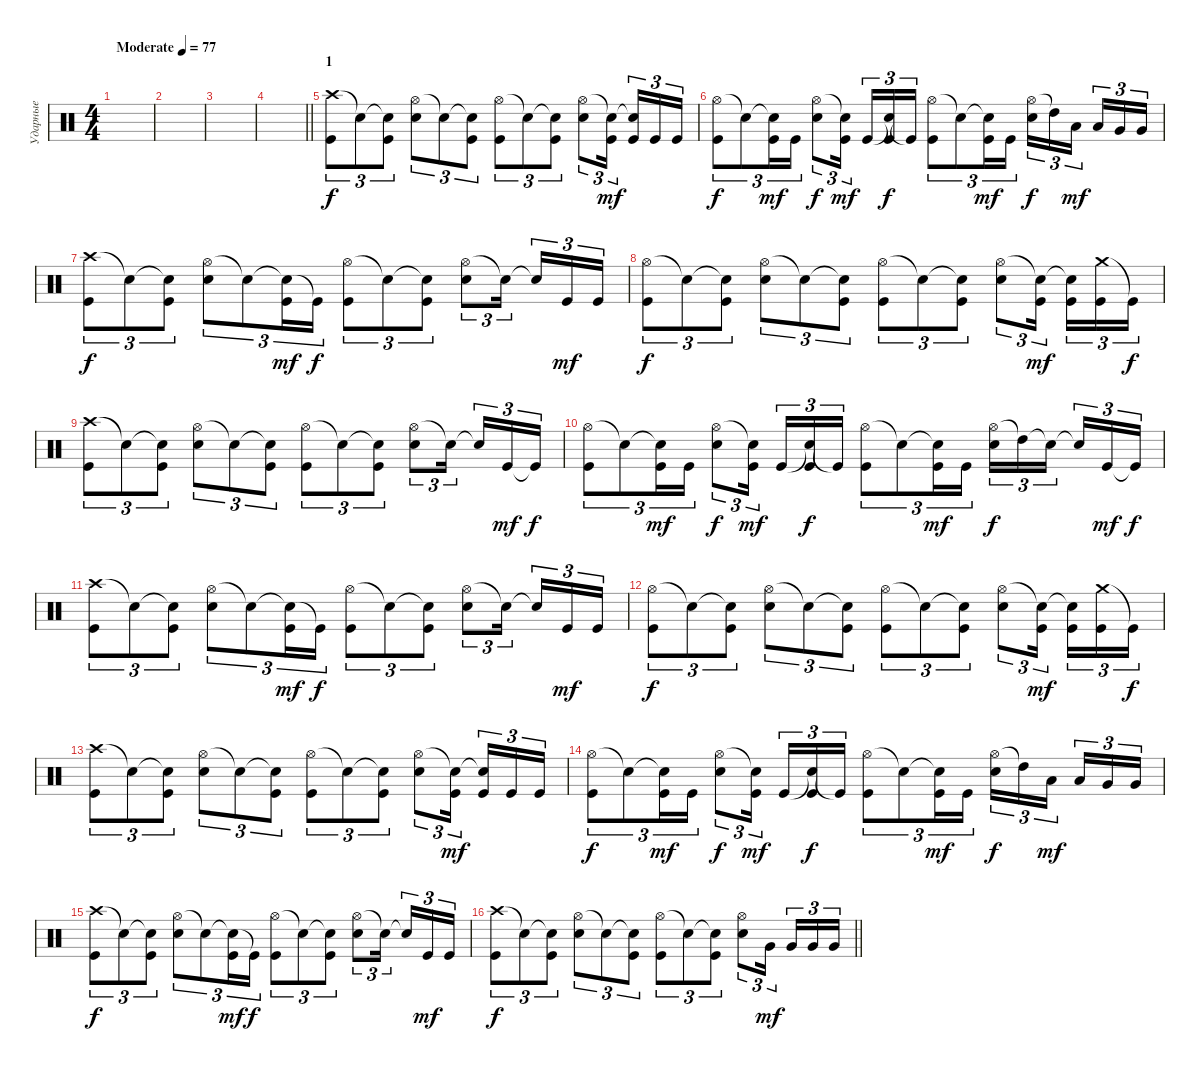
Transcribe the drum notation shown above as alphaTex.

\track ("Ударные" "Ударные") {instrument percussion}
\staff {score}
\articulation defaults
\ts (4 4)
\tempo (77 "Moderate")
\clef neutral
\ks c
|
|
|
\barLineRight lightlight
|
\section ("" "1")
("Crash high (hit)" "Kick (hit)").8{tu (3 2)} "Snare (hit)"{t}.8{tu (3 2)} ("Snare (hit)"{t} "Kick (hit)").8{tu (3 2)} ("Hi-Hat (open)" "Snare (hit) 2").8{tu (3 2)} "Snare (hit)"{t}.8{tu (3 2)} ("Snare (hit)"{t} "Kick (hit)").8{tu (3 2)} ("Hi-Hat (open)" "Kick (hit)").8{tu (3 2)} "Snare (hit)"{t}.8{tu (3 2)} ("Snare (hit)"{t} "Kick (hit)").8{tu (3 2)} ("Hi-Hat (open)" "Snare (hit) 2").8{tu (3 2)} ("Snare (hit)"{t} "Kick (hit)").16{tu (3 2) dy mf beam splitsecondary} ("Snare (hit)"{t} "Kick (hit)").16{tu (3 2)} "Kick (hit)".16{tu (3 2)} "Kick (hit)".16{tu (3 2)} |
("Hi-Hat (open)" "Kick (hit)").8{tu (3 2) dy f} "Snare (hit)"{t}.8{tu (3 2)} ("Snare (hit)"{t} "Kick (hit)").16{tu (3 2) dy mf} "Kick (hit)".16{tu (3 2)} ("Hi-Hat (open)" "Snare (hit) 2").8{tu (3 2) dy f} ("Snare (hit)"{t} "Kick (hit)").16{tu (3 2) dy mf beam splitsecondary} "Kick (hit)".16{tu (3 2)} ("Snare (hit)"{t} "Kick (hit)").16{tu (3 2) dy f} "Kick (hit)"{t}.16{tu (3 2)} ("Hi-Hat (open)" "Kick (hit)").8{tu (3 2)} "Snare (hit)"{t}.8{tu (3 2)} ("Snare (hit)"{t} "Kick (hit)").16{tu (3 2) dy mf} "Kick (hit)".16{tu (3 2)} ("Hi-Hat (open)" "Snare (hit) 2").16{tu (3 2) dy f} "High Tom (hit)"{t}.16{tu (3 2)} "Low Tom (hit)".16{tu (3 2) dy mf beam splitsecondary} "Low Tom (hit)".16{tu (3 2)} "Very Low Tom (hit)".16{tu (3 2)} "Very Low Tom (hit)".16{tu (3 2)} |
("Crash high (hit)" "Kick (hit)").8{tu (3 2) dy f} "Snare (hit)"{t}.8{tu (3 2)} ("Snare (hit)"{t} "Kick (hit)").8{tu (3 2)} ("Hi-Hat (open)" "Snare (hit) 2").8{tu (3 2)} "Snare (hit)"{t}.8{tu (3 2)} ("Snare (hit)"{t} "Kick (hit)").16{tu (3 2) dy mf} "Kick (hit)"{t}.16{tu (3 2) dy f} ("Hi-Hat (open)" "Kick (hit)").8{tu (3 2)} "Snare (hit)"{t}.8{tu (3 2)} ("Snare (hit)"{t} "Kick (hit)").8{tu (3 2)} ("Hi-Hat (open)" "Snare (hit) 2").8{tu (3 2)} "Snare (hit)"{t}.16{tu (3 2) beam splitsecondary} "Snare (hit)"{t}.16{tu (3 2)} "Kick (hit)".16{tu (3 2) dy mf} "Kick (hit)".16{tu (3 2)} |
("Hi-Hat (open)" "Kick (hit)").8{tu (3 2) dy f} "Snare (hit)"{t}.8{tu (3 2)} ("Snare (hit)"{t} "Kick (hit)").8{tu (3 2)} ("Hi-Hat (open)" "Snare (hit) 2").8{tu (3 2)} "Snare (hit)"{t}.8{tu (3 2)} ("Snare (hit)"{t} "Kick (hit)").8{tu (3 2)} ("Hi-Hat (open)" "Kick (hit)").8{tu (3 2)} "Snare (hit)"{t}.8{tu (3 2)} ("Snare (hit)"{t} "Kick (hit)").8{tu (3 2)} ("Hi-Hat (open)" "Snare (hit) 2").8{tu (3 2)} ("Snare (hit)"{t} "Kick (hit)").16{tu (3 2) dy mf beam splitsecondary} ("Snare (hit)"{t} "Kick (hit)").16{tu (3 2)} ("Crash medium (hit)" "Kick (hit)").16{tu (3 2)} "Kick (hit)"{t}.16{tu (3 2) dy f} |
("Crash high (hit)" "Kick (hit)").8{tu (3 2)} "Snare (hit)"{t}.8{tu (3 2)} ("Snare (hit)"{t} "Kick (hit)").8{tu (3 2)} ("Hi-Hat (open)" "Snare (hit) 2").8{tu (3 2)} "Snare (hit)"{t}.8{tu (3 2)} ("Snare (hit)"{t} "Kick (hit)").8{tu (3 2)} ("Hi-Hat (open)" "Kick (hit)").8{tu (3 2)} "Snare (hit)"{t}.8{tu (3 2)} ("Snare (hit)"{t} "Kick (hit)").8{tu (3 2)} ("Hi-Hat (open)" "Snare (hit) 2").8{tu (3 2)} "Snare (hit)"{t}.16{tu (3 2) beam splitsecondary} "Snare (hit)"{t}.16{tu (3 2)} "Kick (hit)".16{tu (3 2) dy mf} "Kick (hit)"{t}.16{tu (3 2) dy f} |
("Hi-Hat (open)" "Kick (hit)").8{tu (3 2)} "Snare (hit)"{t}.8{tu (3 2)} ("Snare (hit)"{t} "Kick (hit)").16{tu (3 2) dy mf} "Kick (hit)".16{tu (3 2)} ("Hi-Hat (open)" "Snare (hit) 2").8{tu (3 2) dy f} ("Snare (hit)"{t} "Kick (hit)").16{tu (3 2) dy mf beam splitsecondary} "Kick (hit)".16{tu (3 2)} ("Snare (hit)"{t} "Kick (hit)").16{tu (3 2) dy f} "Kick (hit)"{t}.16{tu (3 2)} ("Hi-Hat (open)" "Kick (hit)").8{tu (3 2)} "Snare (hit)"{t}.8{tu (3 2)} ("Snare (hit)"{t} "Kick (hit)").16{tu (3 2) dy mf} "Kick (hit)".16{tu (3 2)} ("Hi-Hat (open)" "Snare (hit) 2").16{tu (3 2) dy f} "High Tom (hit)"{t}.16{tu (3 2)} "Snare (hit)"{t}.16{tu (3 2) beam splitsecondary} "Snare (hit)"{t}.16{tu (3 2)} "Kick (hit)".16{tu (3 2) dy mf} "Kick (hit)"{t}.16{tu (3 2) dy f} |
("Crash high (hit)" "Kick (hit)").8{tu (3 2)} "Snare (hit)"{t}.8{tu (3 2)} ("Snare (hit)"{t} "Kick (hit)").8{tu (3 2)} ("Hi-Hat (open)" "Snare (hit) 2").8{tu (3 2)} "Snare (hit)"{t}.8{tu (3 2)} ("Snare (hit)"{t} "Kick (hit)").16{tu (3 2) dy mf} "Kick (hit)"{t}.16{tu (3 2) dy f} ("Hi-Hat (open)" "Kick (hit)").8{tu (3 2)} "Snare (hit)"{t}.8{tu (3 2)} ("Snare (hit)"{t} "Kick (hit)").8{tu (3 2)} ("Hi-Hat (open)" "Snare (hit) 2").8{tu (3 2)} "Snare (hit)"{t}.16{tu (3 2) beam splitsecondary} "Snare (hit)"{t}.16{tu (3 2)} "Kick (hit)".16{tu (3 2) dy mf} "Kick (hit)".16{tu (3 2)} |
("Hi-Hat (open)" "Kick (hit)").8{tu (3 2) dy f} "Snare (hit)"{t}.8{tu (3 2)} ("Snare (hit)"{t} "Kick (hit)").8{tu (3 2)} ("Hi-Hat (open)" "Snare (hit) 2").8{tu (3 2)} "Snare (hit)"{t}.8{tu (3 2)} ("Snare (hit)"{t} "Kick (hit)").8{tu (3 2)} ("Hi-Hat (open)" "Kick (hit)").8{tu (3 2)} "Snare (hit)"{t}.8{tu (3 2)} ("Snare (hit)"{t} "Kick (hit)").8{tu (3 2)} ("Hi-Hat (open)" "Snare (hit) 2").8{tu (3 2)} ("Snare (hit)"{t} "Kick (hit)").16{tu (3 2) dy mf beam splitsecondary} ("Snare (hit)"{t} "Kick (hit)").16{tu (3 2)} ("Crash medium (hit)" "Kick (hit)").16{tu (3 2)} "Kick (hit)"{t}.16{tu (3 2) dy f} |
("Crash high (hit)" "Kick (hit)").8{tu (3 2)} "Snare (hit)"{t}.8{tu (3 2)} ("Snare (hit)"{t} "Kick (hit)").8{tu (3 2)} ("Hi-Hat (open)" "Snare (hit) 2").8{tu (3 2)} "Snare (hit)"{t}.8{tu (3 2)} ("Snare (hit)"{t} "Kick (hit)").8{tu (3 2)} ("Hi-Hat (open)" "Kick (hit)").8{tu (3 2)} "Snare (hit)"{t}.8{tu (3 2)} ("Snare (hit)"{t} "Kick (hit)").8{tu (3 2)} ("Hi-Hat (open)" "Snare (hit) 2").8{tu (3 2)} ("Snare (hit)"{t} "Kick (hit)").16{tu (3 2) dy mf beam splitsecondary} ("Snare (hit)"{t} "Kick (hit)").16{tu (3 2)} "Kick (hit)".16{tu (3 2)} "Kick (hit)".16{tu (3 2)} |
("Hi-Hat (open)" "Kick (hit)").8{tu (3 2) dy f} "Snare (hit)"{t}.8{tu (3 2)} ("Snare (hit)"{t} "Kick (hit)").16{tu (3 2) dy mf} "Kick (hit)".16{tu (3 2)} ("Hi-Hat (open)" "Snare (hit) 2").8{tu (3 2) dy f} ("Snare (hit)"{t} "Kick (hit)").16{tu (3 2) dy mf beam splitsecondary} "Kick (hit)".16{tu (3 2)} ("Snare (hit)"{t} "Kick (hit)").16{tu (3 2) dy f} "Kick (hit)"{t}.16{tu (3 2)} ("Hi-Hat (open)" "Kick (hit)").8{tu (3 2)} "Snare (hit)"{t}.8{tu (3 2)} ("Snare (hit)"{t} "Kick (hit)").16{tu (3 2) dy mf} "Kick (hit)".16{tu (3 2)} ("Hi-Hat (open)" "Snare (hit) 2").16{tu (3 2) dy f} "High Tom (hit)"{t}.16{tu (3 2)} "Low Tom (hit)".16{tu (3 2) dy mf beam splitsecondary} "Low Tom (hit)".16{tu (3 2)} "Very Low Tom (hit)".16{tu (3 2)} "Very Low Tom (hit)".16{tu (3 2)} |
("Crash high (hit)" "Kick (hit)").8{tu (3 2) dy f} "Snare (hit)"{t}.8{tu (3 2)} ("Snare (hit)"{t} "Kick (hit)").8{tu (3 2)} ("Hi-Hat (open)" "Snare (hit) 2").8{tu (3 2)} "Snare (hit)"{t}.8{tu (3 2)} ("Snare (hit)"{t} "Kick (hit)").16{tu (3 2) dy mf} "Kick (hit)"{t}.16{tu (3 2) dy f} ("Hi-Hat (open)" "Kick (hit)").8{tu (3 2)} "Snare (hit)"{t}.8{tu (3 2)} ("Snare (hit)"{t} "Kick (hit)").8{tu (3 2)} ("Hi-Hat (open)" "Snare (hit) 2").8{tu (3 2)} "Snare (hit)"{t}.16{tu (3 2) beam splitsecondary} "Snare (hit)"{t}.16{tu (3 2)} "Kick (hit)".16{tu (3 2) dy mf} "Kick (hit)".16{tu (3 2)} |
\barLineRight lightlight
("Crash high (hit)" "Kick (hit)").8{tu (3 2) dy f} "Snare (hit)"{t}.8{tu (3 2)} ("Snare (hit)"{t} "Kick (hit)").8{tu (3 2)} ("Hi-Hat (open)" "Snare (hit) 2").8{tu (3 2)} "Snare (hit)"{t}.8{tu (3 2)} ("Snare (hit)"{t} "Kick (hit)").8{tu (3 2)} ("Hi-Hat (open)" "Kick (hit)").8{tu (3 2)} "Snare (hit)"{t}.8{tu (3 2)} ("Snare (hit)"{t} "Kick (hit)").8{tu (3 2)} ("Hi-Hat (open)" "Snare (hit) 2").8{tu (3 2)} "Very Low Tom (hit)".16{tu (3 2) dy mf beam splitsecondary} "Very Low Tom (hit)".16{tu (3 2)} "Very Low Tom (hit)".16{tu (3 2)} "Very Low Tom (hit)".16{tu (3 2)}
